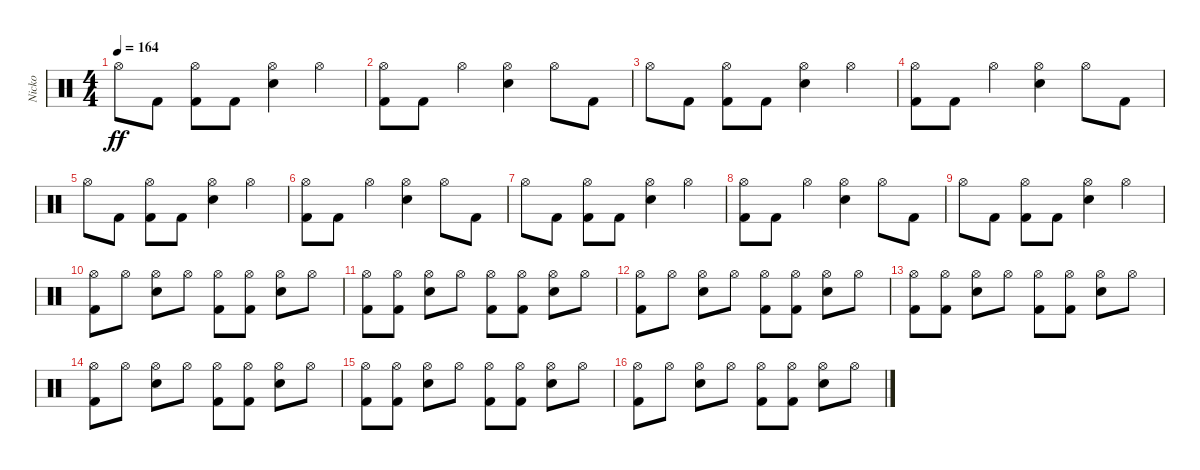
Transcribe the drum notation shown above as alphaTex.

\track ("Nicko" "Nicko") {instrument percussion}
\staff {score}
\articulation defaults
\ts (4 4)
\tempo 164
\clef neutral
\ks c "Hi-Hat (open)".8{dy ff} "Kick (hit) 2".8
("Kick (hit) 2" "Hi-Hat (open)").8 "Kick (hit) 2".8 ("Snare (hit) 2" "Hi-Hat (open)").4 "Hi-Hat (open)".4 |
("Kick (hit) 2" "Hi-Hat (open)").8 "Kick (hit) 2".8 "Hi-Hat (open)".4 ("Snare (hit) 2" "Hi-Hat (open)").4 "Hi-Hat (open)".8 "Kick (hit) 2".8 |
"Hi-Hat (open)".8 "Kick (hit) 2".8 ("Kick (hit) 2" "Hi-Hat (open)").8 "Kick (hit) 2".8 ("Snare (hit) 2" "Hi-Hat (open)").4 "Hi-Hat (open)".4 |
("Kick (hit) 2" "Hi-Hat (open)").8 "Kick (hit) 2".8 "Hi-Hat (open)".4 ("Snare (hit) 2" "Hi-Hat (open)").4 "Hi-Hat (open)".8 "Kick (hit) 2".8 |
"Hi-Hat (open)".8 "Kick (hit) 2".8 ("Kick (hit) 2" "Hi-Hat (open)").8 "Kick (hit) 2".8 ("Snare (hit) 2" "Hi-Hat (open)").4 "Hi-Hat (open)".4 |
("Kick (hit) 2" "Hi-Hat (open)").8 "Kick (hit) 2".8 "Hi-Hat (open)".4 ("Snare (hit) 2" "Hi-Hat (open)").4 "Hi-Hat (open)".8 "Kick (hit) 2".8 |
"Hi-Hat (open)".8 "Kick (hit) 2".8 ("Kick (hit) 2" "Hi-Hat (open)").8 "Kick (hit) 2".8 ("Snare (hit) 2" "Hi-Hat (open)").4 "Hi-Hat (open)".4 |
("Kick (hit) 2" "Hi-Hat (open)").8 "Kick (hit) 2".8 "Hi-Hat (open)".4 ("Snare (hit) 2" "Hi-Hat (open)").4 "Hi-Hat (open)".8 "Kick (hit) 2".8 |
"Hi-Hat (open)".8 "Kick (hit) 2".8 ("Kick (hit) 2" "Hi-Hat (open)").8 "Kick (hit) 2".8 ("Snare (hit) 2" "Hi-Hat (open)").4 "Hi-Hat (open)".4 |
("Kick (hit) 2" "Hi-Hat (open)").8 "Hi-Hat (open)".8 ("Snare (hit) 2" "Hi-Hat (open)").8 "Hi-Hat (open)".8 ("Kick (hit) 2" "Hi-Hat (open)").8 ("Kick (hit) 2" "Hi-Hat (open)").8 ("Snare (hit) 2" "Hi-Hat (open)").8 "Hi-Hat (open)".8 |
("Kick (hit) 2" "Hi-Hat (open)").8 ("Kick (hit) 2" "Hi-Hat (open)").8 ("Snare (hit) 2" "Hi-Hat (open)").8 "Hi-Hat (open)".8 ("Kick (hit) 2" "Hi-Hat (open)").8 ("Kick (hit) 2" "Hi-Hat (open)").8 ("Snare (hit) 2" "Hi-Hat (open)").8 "Hi-Hat (open)".8 |
("Kick (hit) 2" "Hi-Hat (open)").8 "Hi-Hat (open)".8 ("Snare (hit) 2" "Hi-Hat (open)").8 "Hi-Hat (open)".8 ("Kick (hit) 2" "Hi-Hat (open)").8 ("Kick (hit) 2" "Hi-Hat (open)").8 ("Snare (hit) 2" "Hi-Hat (open)").8 "Hi-Hat (open)".8 |
("Kick (hit) 2" "Hi-Hat (open)").8 ("Kick (hit) 2" "Hi-Hat (open)").8 ("Snare (hit) 2" "Hi-Hat (open)").8 "Hi-Hat (open)".8 ("Kick (hit) 2" "Hi-Hat (open)").8 ("Kick (hit) 2" "Hi-Hat (open)").8 ("Snare (hit) 2" "Hi-Hat (open)").8 "Hi-Hat (open)".8 |
("Kick (hit) 2" "Hi-Hat (open)").8 "Hi-Hat (open)".8 ("Snare (hit) 2" "Hi-Hat (open)").8 "Hi-Hat (open)".8 ("Kick (hit) 2" "Hi-Hat (open)").8 ("Kick (hit) 2" "Hi-Hat (open)").8 ("Snare (hit) 2" "Hi-Hat (open)").8 "Hi-Hat (open)".8 |
("Kick (hit) 2" "Hi-Hat (open)").8 ("Kick (hit) 2" "Hi-Hat (open)").8 ("Snare (hit) 2" "Hi-Hat (open)").8 "Hi-Hat (open)".8 ("Kick (hit) 2" "Hi-Hat (open)").8 ("Kick (hit) 2" "Hi-Hat (open)").8 ("Snare (hit) 2" "Hi-Hat (open)").8 "Hi-Hat (open)".8 |
("Kick (hit) 2" "Hi-Hat (open)").8 "Hi-Hat (open)".8 ("Snare (hit) 2" "Hi-Hat (open)").8 "Hi-Hat (open)".8 ("Kick (hit) 2" "Hi-Hat (open)").8 ("Kick (hit) 2" "Hi-Hat (open)").8 ("Snare (hit) 2" "Hi-Hat (open)").8 "Hi-Hat (open)".8
